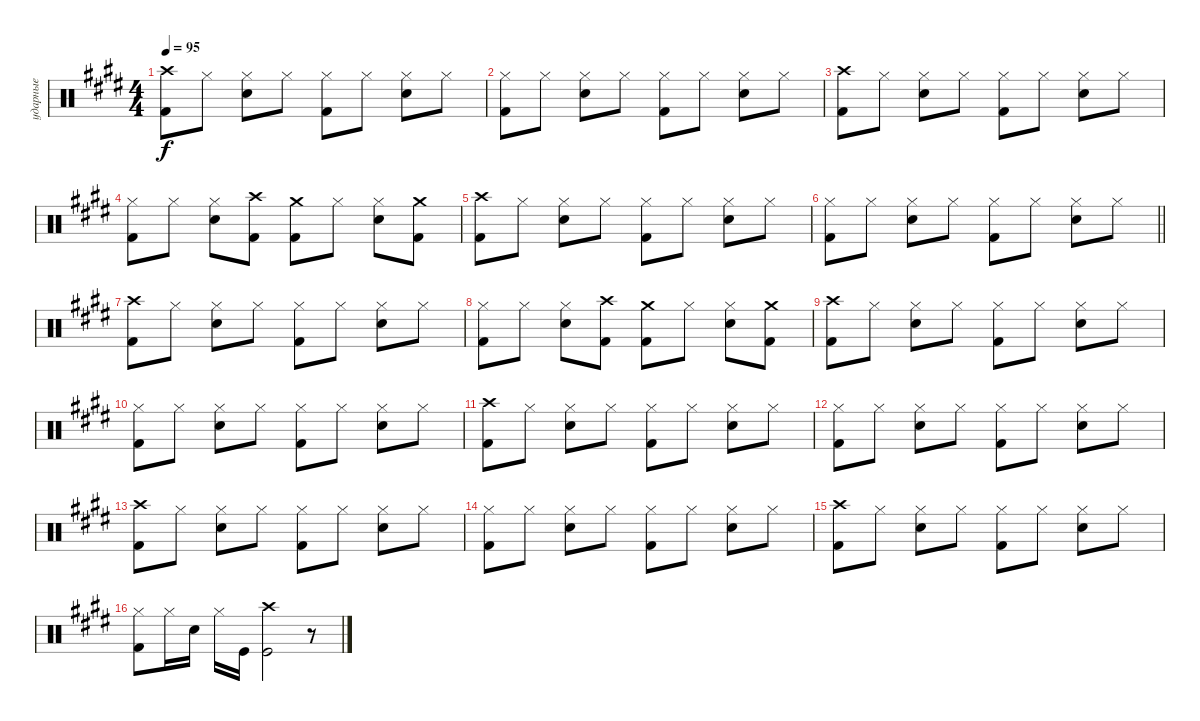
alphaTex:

\track ("ударные" "ударные") {instrument percussion}
\staff {score}
\articulation defaults
\ts (4 4)
\tempo 95
\clef neutral
\ks e
("Crash high (hit)" "Kick (hit) 2").8{dy f} "Hi-Hat (closed)".8 ("Hi-Hat (closed)" "Snare (hit) 2").8 "Hi-Hat (closed)".8 ("Hi-Hat (closed)" "Kick (hit) 2").8 "Hi-Hat (closed)".8 ("Hi-Hat (closed)" "Snare (hit) 2").8 "Hi-Hat (closed)".8 |
("Hi-Hat (closed)" "Kick (hit) 2").8 "Hi-Hat (closed)".8 ("Hi-Hat (closed)" "Snare (hit) 2").8 "Hi-Hat (closed)".8 ("Hi-Hat (closed)" "Kick (hit) 2").8 "Hi-Hat (closed)".8 ("Hi-Hat (closed)" "Snare (hit) 2").8 "Hi-Hat (closed)".8 |
("Crash high (hit)" "Kick (hit) 2").8 "Hi-Hat (closed)".8 ("Hi-Hat (closed)" "Snare (hit) 2").8 "Hi-Hat (closed)".8 ("Hi-Hat (closed)" "Kick (hit) 2").8 "Hi-Hat (closed)".8 ("Hi-Hat (closed)" "Snare (hit) 2").8 "Hi-Hat (closed)".8 |
("Hi-Hat (closed)" "Kick (hit) 2").8 "Hi-Hat (closed)".8 ("Hi-Hat (closed)" "Snare (hit) 2").8 ("Crash high (hit)" "Kick (hit) 2").8 ("Crash medium (hit)" "Kick (hit) 2").8 "Hi-Hat (closed)".8 ("Hi-Hat (closed)" "Snare (hit) 2").8 ("Crash medium (hit)" "Kick (hit) 2").8 |
("Crash high (hit)" "Kick (hit) 2").8 "Hi-Hat (closed)".8 ("Hi-Hat (closed)" "Snare (hit) 2").8 "Hi-Hat (closed)".8 ("Hi-Hat (closed)" "Kick (hit) 2").8 "Hi-Hat (closed)".8 ("Hi-Hat (closed)" "Snare (hit) 2").8 "Hi-Hat (closed)".8 |
\barLineRight lightlight
("Hi-Hat (closed)" "Kick (hit) 2").8 "Hi-Hat (closed)".8 ("Hi-Hat (closed)" "Snare (hit) 2").8 "Hi-Hat (closed)".8 ("Hi-Hat (closed)" "Kick (hit) 2").8 "Hi-Hat (closed)".8 ("Hi-Hat (closed)" "Snare (hit) 2").8 "Hi-Hat (closed)".8 |
\section ("" "")
("Crash high (hit)" "Kick (hit) 2").8 "Hi-Hat (closed)".8 ("Hi-Hat (closed)" "Snare (hit) 2").8 "Hi-Hat (closed)".8 ("Hi-Hat (closed)" "Kick (hit) 2").8 "Hi-Hat (closed)".8 ("Hi-Hat (closed)" "Snare (hit) 2").8 "Hi-Hat (closed)".8 |
("Hi-Hat (closed)" "Kick (hit) 2").8 "Hi-Hat (closed)".8 ("Hi-Hat (closed)" "Snare (hit) 2").8 ("Crash high (hit)" "Kick (hit) 2").8 ("Crash medium (hit)" "Kick (hit) 2").8 "Hi-Hat (closed)".8 ("Hi-Hat (closed)" "Snare (hit) 2").8 ("Crash medium (hit)" "Kick (hit) 2").8 |
("Crash high (hit)" "Kick (hit) 2").8 "Hi-Hat (closed)".8 ("Hi-Hat (closed)" "Snare (hit) 2").8 "Hi-Hat (closed)".8 ("Hi-Hat (closed)" "Kick (hit) 2").8 "Hi-Hat (closed)".8 ("Hi-Hat (closed)" "Snare (hit) 2").8 "Hi-Hat (closed)".8 |
("Hi-Hat (closed)" "Kick (hit) 2").8 "Hi-Hat (closed)".8 ("Hi-Hat (closed)" "Snare (hit) 2").8 "Hi-Hat (closed)".8 ("Hi-Hat (closed)" "Kick (hit) 2").8 "Hi-Hat (closed)".8 ("Hi-Hat (closed)" "Snare (hit) 2").8 "Hi-Hat (closed)".8 |
("Crash high (hit)" "Kick (hit) 2").8 "Hi-Hat (closed)".8 ("Hi-Hat (closed)" "Snare (hit) 2").8 "Hi-Hat (closed)".8 ("Hi-Hat (closed)" "Kick (hit) 2").8 "Hi-Hat (closed)".8 ("Hi-Hat (closed)" "Snare (hit) 2").8 "Hi-Hat (closed)".8 |
("Hi-Hat (closed)" "Kick (hit) 2").8 "Hi-Hat (closed)".8 ("Hi-Hat (closed)" "Snare (hit) 2").8 "Hi-Hat (closed)".8 ("Hi-Hat (closed)" "Kick (hit) 2").8 "Hi-Hat (closed)".8 ("Hi-Hat (closed)" "Snare (hit) 2").8 "Hi-Hat (closed)".8 |
("Crash high (hit)" "Kick (hit) 2").8 "Hi-Hat (closed)".8 ("Hi-Hat (closed)" "Snare (hit) 2").8 "Hi-Hat (closed)".8 ("Hi-Hat (closed)" "Kick (hit) 2").8 "Hi-Hat (closed)".8 ("Hi-Hat (closed)" "Snare (hit) 2").8 "Hi-Hat (closed)".8 |
("Hi-Hat (closed)" "Kick (hit) 2").8 "Hi-Hat (closed)".8 ("Hi-Hat (closed)" "Snare (hit) 2").8 "Hi-Hat (closed)".8 ("Hi-Hat (closed)" "Kick (hit) 2").8 "Hi-Hat (closed)".8 ("Hi-Hat (closed)" "Snare (hit) 2").8 "Hi-Hat (closed)".8 |
("Crash high (hit)" "Kick (hit) 2").8 "Hi-Hat (closed)".8 ("Hi-Hat (closed)" "Snare (hit) 2").8 "Hi-Hat (closed)".8 ("Hi-Hat (closed)" "Kick (hit) 2").8 "Hi-Hat (closed)".8 ("Hi-Hat (closed)" "Snare (hit) 2").8 "Hi-Hat (closed)".8 |
("Hi-Hat (closed)" "Kick (hit) 2").8 "Hi-Hat (closed)".16 "Snare (hit) 2".16 "Hi-Hat (closed)".16 "Kick (hit)".16 ("Kick (hit)" "Crash high (hit)").2 r.8
